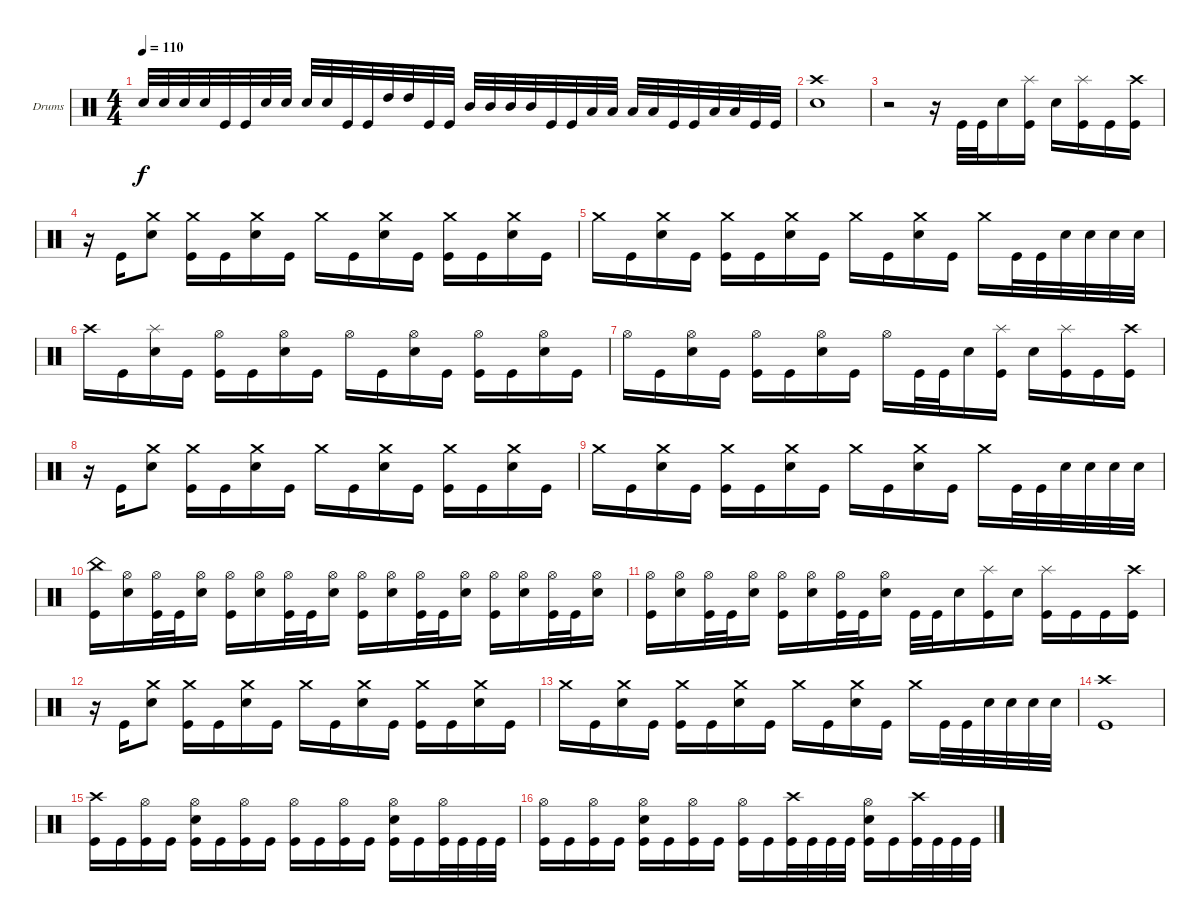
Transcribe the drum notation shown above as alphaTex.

\defaultSystemsLayout 4
\bracketExtendMode groupsimilarinstruments
\firstSystemTrackNameOrientation horizontal
\otherSystemsTrackNameOrientation horizontal
\track ("Drumkit" "Drums") {instrument percussion}
\staff {score}
\articulation defaults
\ts (4 4)
\tempo 110
\clef neutral
\scale
0.866359
\ks c "Snare (hit) 2".32{dy f} "Snare (hit) 2".32 "Snare (hit) 2".32 "Snare (hit) 2".32 "Kick (hit)".32 "Kick (hit)".32 "Snare (hit) 2".32 "Snare (hit) 2".32 "Snare (hit) 2".32 "Snare (hit) 2".32 "Kick (hit)".32 "Kick (hit)".32 "High Tom (hit)".32 "High Tom (hit)".32 "Kick (hit)".32 "Kick (hit)".32 "Mid Tom (hit)".32 "Mid Tom (hit)".32 "Mid Tom (hit)".32 "Mid Tom (hit)".32 "Kick (hit)".32 "Kick (hit)".32 "Low Tom (hit)".32 "Low Tom (hit)".32 "Low Tom (hit)".32 "Low Tom (hit)".32 "Kick (hit)".32 "Kick (hit)".32 "Low Tom (hit)".32 "Low Tom (hit)".32 "Kick (hit)".32 "Kick (hit)".32
|
\scale
0.133641 ("Crash high (hit)" "Snare (hit) 2").1 |
\scale
0.449309 r.2 r.16 "Kick (hit)".32 "Kick (hit)".32 "Snare (hit) 2".16 ("Splash (hit)" "Kick (hit)").16 "Snare (hit) 2".16 ("Splash (hit)" "Kick (hit)").16 "Kick (hit)".16 ("Crash high (hit)" "Kick (hit)").16 |
\scale
0.550691 r.16 "Kick (hit)".16 ("Crash medium (hit)" "Snare (hit) 2").8 ("Crash medium (hit)" "Kick (hit)").16 "Kick (hit)".16 ("Crash medium (hit)" "Snare (hit) 2").16 "Kick (hit)".16 "Crash medium (hit)".16 "Kick (hit)".16 ("Crash medium (hit)" "Snare (hit) 2").16 "Kick (hit)".16 ("Crash medium (hit)" "Kick (hit)").16 "Kick (hit)".16 ("Crash medium (hit)" "Snare (hit) 2").16 "Kick (hit)".16 |
\scale
0.534709 "Crash medium (hit)".16 "Kick (hit)".16 ("Crash medium (hit)" "Snare (hit) 2").16 "Kick (hit)".16 ("Crash medium (hit)" "Kick (hit)").16 "Kick (hit)".16 ("Crash medium (hit)" "Snare (hit) 2").16 "Kick (hit)".16 "Crash medium (hit)".16 "Kick (hit)".16 ("Crash medium (hit)" "Snare (hit) 2").16 "Kick (hit)".16 "Crash medium (hit)".16 "Kick (hit)".32 "Kick (hit)".32 "Snare (hit) 2".32 "Snare (hit) 2".32 "Snare (hit) 2".32 "Snare (hit) 2".32 |
\scale
0.465291 "Crash high (hit)".16 "Kick (hit)".16 ("Splash (hit)" "Snare (hit) 2").16 "Kick (hit)".16 ("Hi-Hat (open)" "Kick (hit)").16 "Kick (hit)".16 ("Hi-Hat (open)" "Snare (hit) 2").16 "Kick (hit)".16 "Hi-Hat (open)".16 "Kick (hit)".16 ("Hi-Hat (open)" "Snare (hit) 2").16 "Kick (hit)".16 ("Hi-Hat (open)" "Kick (hit)").16 "Kick (hit)".16 ("Hi-Hat (open)" "Snare (hit) 2").16 "Kick (hit)".16 |
\scale
0.531373 "Hi-Hat (open)".16 "Kick (hit)".16 ("Hi-Hat (open)" "Snare (hit) 2").16 "Kick (hit)".16 ("Hi-Hat (open)" "Kick (hit)").16 "Kick (hit)".16 ("Hi-Hat (open)" "Snare (hit) 2").16 "Kick (hit)".16 "Hi-Hat (open)".16 "Kick (hit)".32 "Kick (hit)".32 "Snare (hit) 2".16 ("Splash (hit)" "Kick (hit)").16 "Snare (hit) 2".16 ("Splash (hit)" "Kick (hit)").16 "Kick (hit)".16 ("Crash high (hit)" "Kick (hit)").16 |
\scale
0.468627 r.16 "Kick (hit)".16 ("Crash medium (hit)" "Snare (hit) 2").8 ("Crash medium (hit)" "Kick (hit)").16 "Kick (hit)".16 ("Crash medium (hit)" "Snare (hit) 2").16 "Kick (hit)".16 "Crash medium (hit)".16 "Kick (hit)".16 ("Crash medium (hit)" "Snare (hit) 2").16 "Kick (hit)".16 ("Crash medium (hit)" "Kick (hit)").16 "Kick (hit)".16 ("Crash medium (hit)" "Snare (hit) 2").16 "Kick (hit)".16 |
\scale
0.493934 "Crash medium (hit)".16 "Kick (hit)".16 ("Crash medium (hit)" "Snare (hit) 2").16 "Kick (hit)".16 ("Crash medium (hit)" "Kick (hit)").16 "Kick (hit)".16 ("Crash medium (hit)" "Snare (hit) 2").16 "Kick (hit)".16 "Crash medium (hit)".16 "Kick (hit)".16 ("Crash medium (hit)" "Snare (hit) 2").16 "Kick (hit)".16 "Crash medium (hit)".16 "Kick (hit)".32 "Kick (hit)".32 "Snare (hit) 2".32 "Snare (hit) 2".32 "Snare (hit) 2".32 "Snare (hit) 2".32 |
\scale
0.506066 ("China (hit)" "Kick (hit)").16 ("Hi-Hat (open)" "Snare (hit) 2").16 ("Hi-Hat (open)" "Kick (hit)").32 "Kick (hit)".32 ("Hi-Hat (open)" "Snare (hit) 2").16 ("Hi-Hat (open)" "Kick (hit)").16 ("Hi-Hat (open)" "Snare (hit) 2").16 ("Hi-Hat (open)" "Kick (hit)").32 "Kick (hit)".32 ("Hi-Hat (open)" "Snare (hit) 2").16 ("Hi-Hat (open)" "Kick (hit)").16 ("Hi-Hat (open)" "Snare (hit) 2").16 ("Hi-Hat (open)" "Kick (hit)").32 "Kick (hit)".32 ("Hi-Hat (open)" "Snare (hit) 2").16 ("Hi-Hat (open)" "Kick (hit)").16 ("Hi-Hat (open)" "Snare (hit) 2").16 ("Hi-Hat (open)" "Kick (hit)").32 "Kick (hit)".32 ("Hi-Hat (open)" "Snare (hit) 2").16 |
\scale
0.543893 ("Hi-Hat (open)" "Kick (hit)").16 ("Hi-Hat (open)" "Snare (hit) 2").16 ("Hi-Hat (open)" "Kick (hit)").32 "Kick (hit)".32 ("Hi-Hat (open)" "Snare (hit) 2").16 ("Hi-Hat (open)" "Kick (hit)").16 ("Hi-Hat (open)" "Snare (hit) 2").16 ("Hi-Hat (open)" "Kick (hit)").32 "Kick (hit)".32 ("Hi-Hat (open)" "Snare (hit) 2").16 "Kick (hit)".32 "Kick (hit)".32 "Snare (hit) 2".16 ("Splash (hit)" "Kick (hit)").16 "Snare (hit) 2".16 ("Splash (hit)" "Kick (hit)").16 "Kick (hit)".16 "Kick (hit)".16 ("Crash high (hit)" "Kick (hit)").16 |
\scale
0.456107 r.16 "Kick (hit)".16 ("Crash medium (hit)" "Snare (hit) 2").8 ("Crash medium (hit)" "Kick (hit)").16 "Kick (hit)".16 ("Crash medium (hit)" "Snare (hit) 2").16 "Kick (hit)".16 "Crash medium (hit)".16 "Kick (hit)".16 ("Crash medium (hit)" "Snare (hit) 2").16 "Kick (hit)".16 ("Crash medium (hit)" "Kick (hit)").16 "Kick (hit)".16 ("Crash medium (hit)" "Snare (hit) 2").16 "Kick (hit)".16 |
\scale
0.830904 "Crash medium (hit)".16 "Kick (hit)".16 ("Crash medium (hit)" "Snare (hit) 2").16 "Kick (hit)".16 ("Crash medium (hit)" "Kick (hit)").16 "Kick (hit)".16 ("Crash medium (hit)" "Snare (hit) 2").16 "Kick (hit)".16 "Crash medium (hit)".16 "Kick (hit)".16 ("Crash medium (hit)" "Snare (hit) 2").16 "Kick (hit)".16 "Crash medium (hit)".16 "Kick (hit)".32 "Kick (hit)".32 "Snare (hit) 2".32 "Snare (hit) 2".32 "Snare (hit) 2".32 "Snare (hit) 2".32 |
\scale
0.169096 ("Crash high (hit)" "Kick (hit)").1 |
\scale
0.487719 ("Crash high (hit)" "Kick (hit)").16 "Kick (hit)".16 ("Hi-Hat (open)" "Kick (hit)").16 "Kick (hit)".16 ("Hi-Hat (open)" "Snare (hit) 2" "Kick (hit)").16 "Kick (hit)".16 ("Hi-Hat (open)" "Kick (hit)").16 "Kick (hit)".16 ("Hi-Hat (open)" "Kick (hit)").16 "Kick (hit)".16 ("Hi-Hat (open)" "Kick (hit)").16 "Kick (hit)".16 ("Hi-Hat (open)" "Snare (hit) 2" "Kick (hit)").16 "Kick (hit)".16 ("Hi-Hat (open)" "Kick (hit)").32 "Kick (hit)".32 "Kick (hit)".32 "Kick (hit)".32 |
\scale
0.512281 ("Hi-Hat (open)" "Kick (hit)").16 "Kick (hit)".16 ("Hi-Hat (open)" "Kick (hit)").16 "Kick (hit)".16 ("Hi-Hat (open)" "Snare (hit) 2" "Kick (hit)").16 "Kick (hit)".16 ("Hi-Hat (open)" "Kick (hit)").16 "Kick (hit)".16 ("Hi-Hat (open)" "Kick (hit)").16 "Kick (hit)".16 ("Crash high (hit)" "Kick (hit)").32 "Kick (hit)".32 "Kick (hit)".32 "Kick (hit)".32 ("Hi-Hat (open)" "Snare (hit) 2" "Kick (hit)").16 "Kick (hit)".16 ("Crash high (hit)" "Kick (hit)").32 "Kick (hit)".32 "Kick (hit)".32 "Kick (hit)".32
